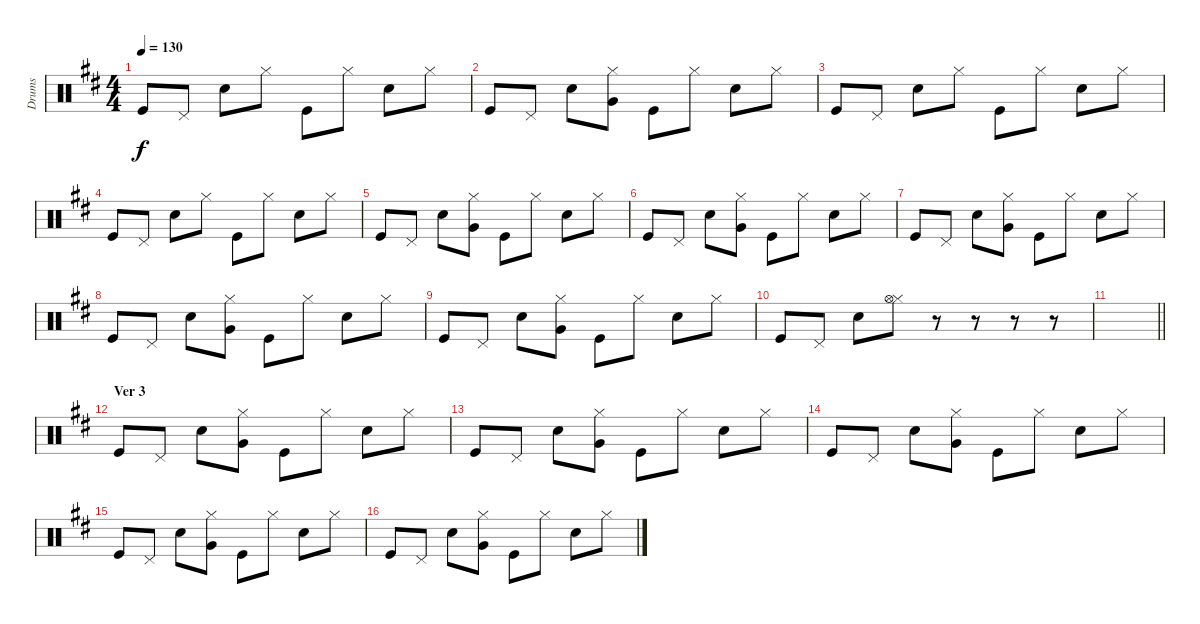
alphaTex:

\track ("Drums" "Drums") {instrument percussion}
\staff {score}
\articulation defaults
\ts (4 4)
\tempo 130
\clef neutral
\ks d "Kick (hit)".8{dy f} "Pedal Hi-Hat (hit)".8 "Snare (hit) 2".8 "Hi-Hat (closed)".8 "Kick (hit)".8 "Hi-Hat (closed)".8 "Snare (hit) 2".8 "Hi-Hat (closed)".8
|
"Kick (hit)".8 "Pedal Hi-Hat (hit)".8 "Snare (hit) 2".8 ("Hi-Hat (closed)" "Very Low Tom (hit)").8 "Kick (hit)".8 "Hi-Hat (closed)".8 "Snare (hit) 2".8 "Hi-Hat (closed)".8 |
"Kick (hit)".8 "Pedal Hi-Hat (hit)".8 "Snare (hit) 2".8 "Hi-Hat (closed)".8 "Kick (hit)".8 "Hi-Hat (closed)".8 "Snare (hit) 2".8 "Hi-Hat (closed)".8 |
"Kick (hit)".8 "Pedal Hi-Hat (hit)".8 "Snare (hit) 2".8 "Hi-Hat (closed)".8 "Kick (hit)".8 "Hi-Hat (closed)".8 "Snare (hit) 2".8 "Hi-Hat (closed)".8 |
"Kick (hit)".8 "Pedal Hi-Hat (hit)".8 "Snare (hit) 2".8 ("Hi-Hat (closed)" "Very Low Tom (hit)").8 "Kick (hit)".8 "Hi-Hat (closed)".8 "Snare (hit) 2".8 "Hi-Hat (closed)".8 |
"Kick (hit)".8 "Pedal Hi-Hat (hit)".8 "Snare (hit) 2".8 ("Hi-Hat (closed)" "Very Low Tom (hit)").8 "Kick (hit)".8 "Hi-Hat (closed)".8 "Snare (hit) 2".8 "Hi-Hat (closed)".8 |
"Kick (hit)".8 "Pedal Hi-Hat (hit)".8 "Snare (hit) 2".8 ("Hi-Hat (closed)" "Very Low Tom (hit)").8 "Kick (hit)".8 "Hi-Hat (closed)".8 "Snare (hit) 2".8 "Hi-Hat (closed)".8 |
"Kick (hit)".8 "Pedal Hi-Hat (hit)".8 "Snare (hit) 2".8 ("Hi-Hat (closed)" "Very Low Tom (hit)").8 "Kick (hit)".8 "Hi-Hat (closed)".8 "Snare (hit) 2".8 "Hi-Hat (closed)".8 |
"Kick (hit)".8 "Pedal Hi-Hat (hit)".8 "Snare (hit) 2".8 ("Hi-Hat (closed)" "Very Low Tom (hit)").8 "Kick (hit)".8 "Hi-Hat (closed)".8 "Snare (hit) 2".8 "Hi-Hat (closed)".8 |
"Kick (hit)".8 "Pedal Hi-Hat (hit)".8 "Snare (hit) 2".8 ("Hi-Hat (closed)" "Hi-Hat (open)").8 r.8 r.8 r.8 r.8 |
\barLineRight lightlight
|
\section ("" "Ver 3")
"Kick (hit)".8 "Pedal Hi-Hat (hit)".8 "Snare (hit) 2".8 ("Hi-Hat (closed)" "Very Low Tom (hit)").8 "Kick (hit)".8 "Hi-Hat (closed)".8 "Snare (hit) 2".8 "Hi-Hat (closed)".8 |
"Kick (hit)".8 "Pedal Hi-Hat (hit)".8 "Snare (hit) 2".8 ("Hi-Hat (closed)" "Very Low Tom (hit)").8 "Kick (hit)".8 "Hi-Hat (closed)".8 "Snare (hit) 2".8 "Hi-Hat (closed)".8 |
"Kick (hit)".8 "Pedal Hi-Hat (hit)".8 "Snare (hit) 2".8 ("Hi-Hat (closed)" "Very Low Tom (hit)").8 "Kick (hit)".8 "Hi-Hat (closed)".8 "Snare (hit) 2".8 "Hi-Hat (closed)".8 |
"Kick (hit)".8 "Pedal Hi-Hat (hit)".8 "Snare (hit) 2".8 ("Hi-Hat (closed)" "Very Low Tom (hit)").8 "Kick (hit)".8 "Hi-Hat (closed)".8 "Snare (hit) 2".8 "Hi-Hat (closed)".8 |
"Kick (hit)".8 "Pedal Hi-Hat (hit)".8 "Snare (hit) 2".8 ("Hi-Hat (closed)" "Very Low Tom (hit)").8 "Kick (hit)".8 "Hi-Hat (closed)".8 "Snare (hit) 2".8 "Hi-Hat (closed)".8
